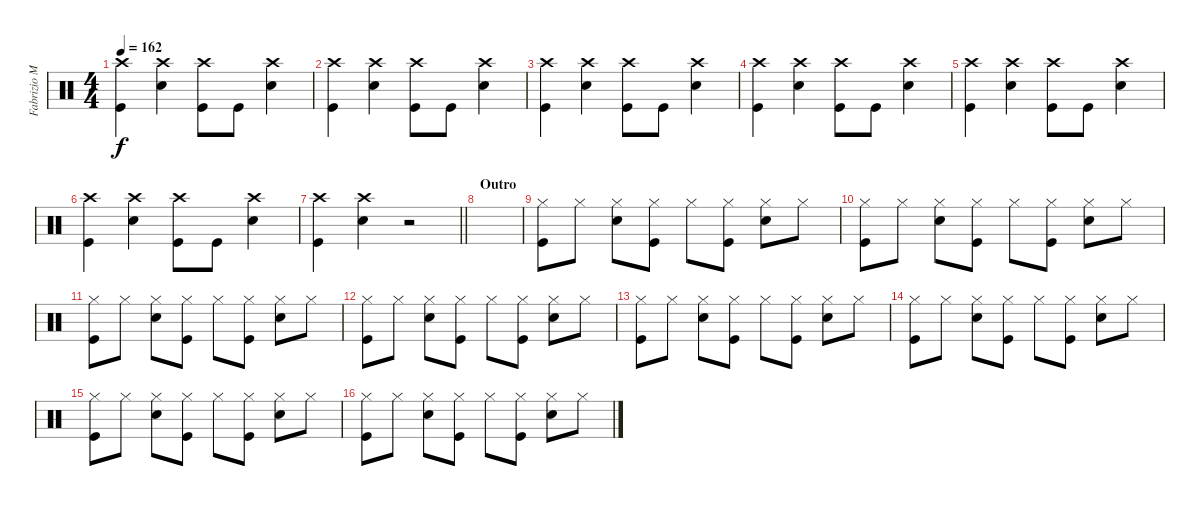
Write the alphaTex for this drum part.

\track ("Fabrizio Moretti" "Fabrizio M") {instrument percussion}
\staff {score}
\articulation defaults
\ts (4 4)
\tempo 162
\clef neutral
\ks c
("Crash high (hit)" "Kick (hit)").4{dy f} ("Crash high (hit)" "Snare (hit) 2").4 ("Crash high (hit)" "Kick (hit)").8 "Kick (hit)".8 ("Crash high (hit)" "Snare (hit) 2").4 |
("Crash high (hit)" "Kick (hit)").4 ("Crash high (hit)" "Snare (hit) 2").4 ("Crash high (hit)" "Kick (hit)").8 "Kick (hit)".8 ("Crash high (hit)" "Snare (hit) 2").4 |
("Crash high (hit)" "Kick (hit)").4 ("Crash high (hit)" "Snare (hit) 2").4 ("Crash high (hit)" "Kick (hit)").8 "Kick (hit)".8 ("Crash high (hit)" "Snare (hit) 2").4 |
("Crash high (hit)" "Kick (hit)").4 ("Crash high (hit)" "Snare (hit) 2").4 ("Crash high (hit)" "Kick (hit)").8 "Kick (hit)".8 ("Crash high (hit)" "Snare (hit) 2").4 |
("Crash high (hit)" "Kick (hit)").4 ("Crash high (hit)" "Snare (hit) 2").4 ("Crash high (hit)" "Kick (hit)").8 "Kick (hit)".8 ("Crash high (hit)" "Snare (hit) 2").4 |
("Crash high (hit)" "Kick (hit)").4 ("Crash high (hit)" "Snare (hit) 2").4 ("Crash high (hit)" "Kick (hit)").8 "Kick (hit)".8 ("Crash high (hit)" "Snare (hit) 2").4 |
\barLineRight lightlight
("Crash high (hit)" "Kick (hit)").4 ("Crash high (hit)" "Snare (hit) 2").4 r.2 |
\section ("" "Outro")
|
("Hi-Hat (closed)" "Kick (hit)").8 "Hi-Hat (closed)".8 ("Hi-Hat (closed)" "Snare (hit) 2").8 ("Hi-Hat (closed)" "Kick (hit)").8 "Hi-Hat (closed)".8 ("Hi-Hat (closed)" "Kick (hit)").8 ("Hi-Hat (closed)" "Snare (hit) 2").8 "Hi-Hat (closed)".8 |
("Hi-Hat (closed)" "Kick (hit)").8 "Hi-Hat (closed)".8 ("Hi-Hat (closed)" "Snare (hit) 2").8 ("Hi-Hat (closed)" "Kick (hit)").8 "Hi-Hat (closed)".8 ("Hi-Hat (closed)" "Kick (hit)").8 ("Hi-Hat (closed)" "Snare (hit) 2").8 "Hi-Hat (closed)".8 |
("Hi-Hat (closed)" "Kick (hit)").8 "Hi-Hat (closed)".8 ("Hi-Hat (closed)" "Snare (hit) 2").8 ("Hi-Hat (closed)" "Kick (hit)").8 "Hi-Hat (closed)".8 ("Hi-Hat (closed)" "Kick (hit)").8 ("Hi-Hat (closed)" "Snare (hit) 2").8 "Hi-Hat (closed)".8 |
("Hi-Hat (closed)" "Kick (hit)").8 "Hi-Hat (closed)".8 ("Hi-Hat (closed)" "Snare (hit) 2").8 ("Hi-Hat (closed)" "Kick (hit)").8 "Hi-Hat (closed)".8 ("Hi-Hat (closed)" "Kick (hit)").8 ("Hi-Hat (closed)" "Snare (hit) 2").8 "Hi-Hat (closed)".8 |
("Hi-Hat (closed)" "Kick (hit)").8 "Hi-Hat (closed)".8 ("Hi-Hat (closed)" "Snare (hit) 2").8 ("Hi-Hat (closed)" "Kick (hit)").8 "Hi-Hat (closed)".8 ("Hi-Hat (closed)" "Kick (hit)").8 ("Hi-Hat (closed)" "Snare (hit) 2").8 "Hi-Hat (closed)".8 |
("Hi-Hat (closed)" "Kick (hit)").8 "Hi-Hat (closed)".8 ("Hi-Hat (closed)" "Snare (hit) 2").8 ("Hi-Hat (closed)" "Kick (hit)").8 "Hi-Hat (closed)".8 ("Hi-Hat (closed)" "Kick (hit)").8 ("Hi-Hat (closed)" "Snare (hit) 2").8 "Hi-Hat (closed)".8 |
("Hi-Hat (closed)" "Kick (hit)").8 "Hi-Hat (closed)".8 ("Hi-Hat (closed)" "Snare (hit) 2").8 ("Hi-Hat (closed)" "Kick (hit)").8 "Hi-Hat (closed)".8 ("Hi-Hat (closed)" "Kick (hit)").8 ("Hi-Hat (closed)" "Snare (hit) 2").8 "Hi-Hat (closed)".8 |
("Hi-Hat (closed)" "Kick (hit)").8 "Hi-Hat (closed)".8 ("Hi-Hat (closed)" "Snare (hit) 2").8 ("Hi-Hat (closed)" "Kick (hit)").8 "Hi-Hat (closed)".8 ("Hi-Hat (closed)" "Kick (hit)").8 ("Hi-Hat (closed)" "Snare (hit) 2").8 "Hi-Hat (closed)".8
